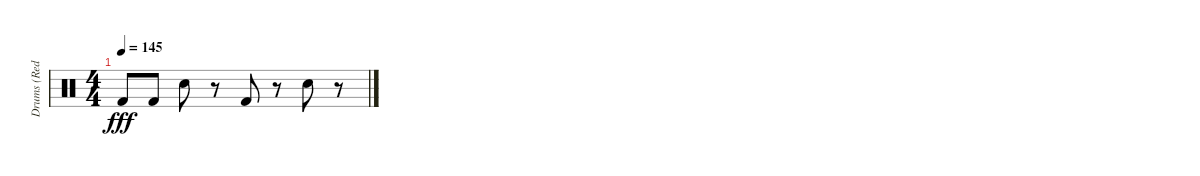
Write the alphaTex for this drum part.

\track ("Drums (Red)" "Drums (Red") {instrument percussion}
\staff {score}
\articulation defaults
\ts (4 4)
\tempo 145
\clef neutral
\ks c "Kick (hit) 2".8{dy fff} "Kick (hit) 2".8 "Electric Snare (hit)".8
r.8 "Kick (hit) 2".8 r.8 "Electric Snare (hit)".8 r.8
